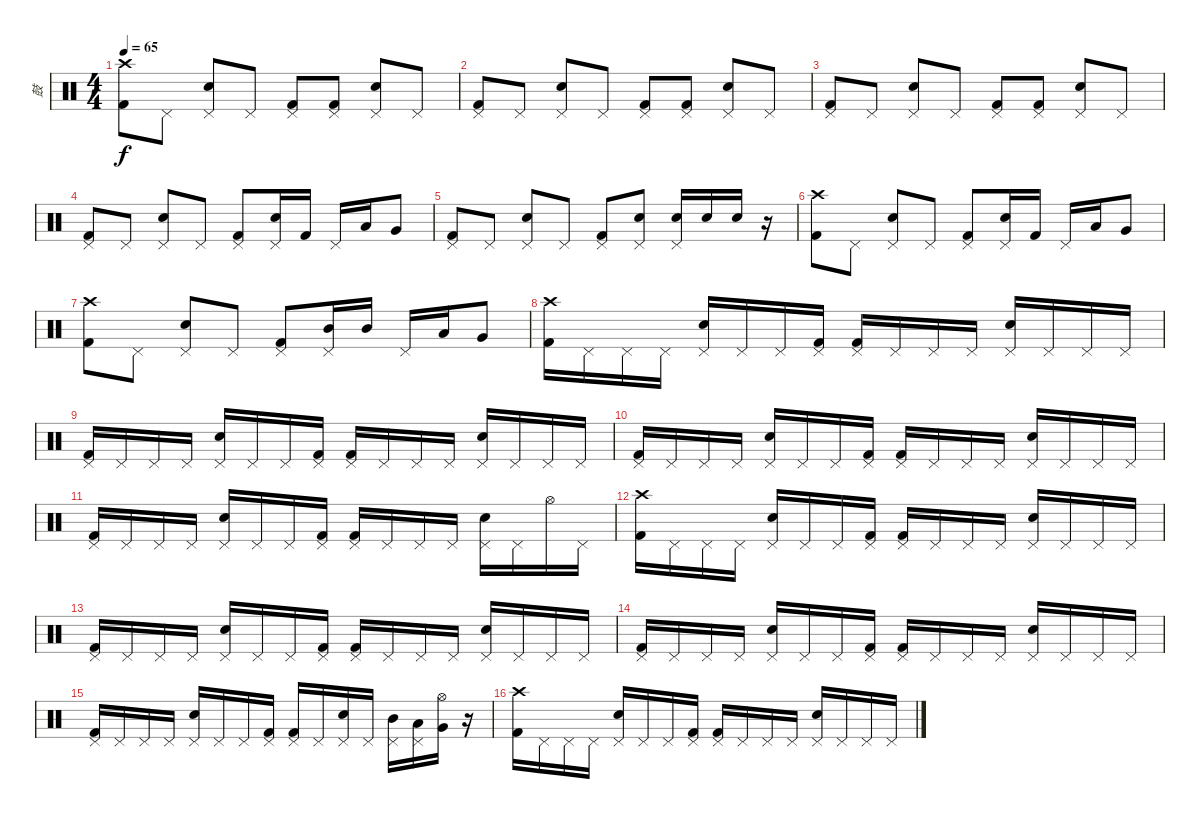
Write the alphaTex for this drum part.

\track ("鼓" "鼓") {instrument percussion}
\staff {score}
\articulation defaults
\ts (4 4)
\tempo 65
\clef neutral
\ks c
("Crash high (hit)" "Kick (hit) 2").8{dy f} "Pedal Hi-Hat (hit)".8 ("Pedal Hi-Hat (hit)" "Electric Snare (hit)").8 "Pedal Hi-Hat (hit)".8 ("Pedal Hi-Hat (hit)" "Kick (hit) 2").8 ("Pedal Hi-Hat (hit)" "Kick (hit) 2").8 ("Pedal Hi-Hat (hit)" "Electric Snare (hit)").8 "Pedal Hi-Hat (hit)".8 |
("Pedal Hi-Hat (hit)" "Kick (hit) 2").8 "Pedal Hi-Hat (hit)".8 ("Pedal Hi-Hat (hit)" "Electric Snare (hit)").8 "Pedal Hi-Hat (hit)".8 ("Pedal Hi-Hat (hit)" "Kick (hit) 2").8 ("Pedal Hi-Hat (hit)" "Kick (hit) 2").8 ("Pedal Hi-Hat (hit)" "Electric Snare (hit)").8 "Pedal Hi-Hat (hit)".8 |
("Pedal Hi-Hat (hit)" "Kick (hit) 2").8 "Pedal Hi-Hat (hit)".8 ("Pedal Hi-Hat (hit)" "Electric Snare (hit)").8 "Pedal Hi-Hat (hit)".8 ("Pedal Hi-Hat (hit)" "Kick (hit) 2").8 ("Pedal Hi-Hat (hit)" "Kick (hit) 2").8 ("Pedal Hi-Hat (hit)" "Electric Snare (hit)").8 "Pedal Hi-Hat (hit)".8 |
("Pedal Hi-Hat (hit)" "Kick (hit) 2").8 "Pedal Hi-Hat (hit)".8 ("Pedal Hi-Hat (hit)" "Electric Snare (hit)").8 "Pedal Hi-Hat (hit)".8 ("Pedal Hi-Hat (hit)" "Kick (hit) 2").8 ("Pedal Hi-Hat (hit)" "Electric Snare (hit)").16 "Kick (hit) 2".16 "Pedal Hi-Hat (hit)".16 "Low Tom (hit)".16 "Very Low Tom (hit)".8 |
("Pedal Hi-Hat (hit)" "Kick (hit) 2").8 "Pedal Hi-Hat (hit)".8 ("Pedal Hi-Hat (hit)" "Electric Snare (hit)").8 "Pedal Hi-Hat (hit)".8 ("Pedal Hi-Hat (hit)" "Kick (hit) 2").8 ("Pedal Hi-Hat (hit)" "Electric Snare (hit)").8 ("Pedal Hi-Hat (hit)" "Electric Snare (hit)").16 "Electric Snare (hit)".16 "Electric Snare (hit)".16 r.16 |
("Crash high (hit)" "Kick (hit) 2").8 "Pedal Hi-Hat (hit)".8 ("Pedal Hi-Hat (hit)" "Electric Snare (hit)").8 "Pedal Hi-Hat (hit)".8 ("Pedal Hi-Hat (hit)" "Kick (hit) 2").8 ("Pedal Hi-Hat (hit)" "Electric Snare (hit)").16 "Kick (hit) 2".16 "Pedal Hi-Hat (hit)".16 "Low Tom (hit)".16 "Very Low Tom (hit)".8 |
("Crash high (hit)" "Kick (hit) 2").8 "Pedal Hi-Hat (hit)".8 ("Pedal Hi-Hat (hit)" "Electric Snare (hit)").8 "Pedal Hi-Hat (hit)".8 ("Pedal Hi-Hat (hit)" "Kick (hit) 2").8 ("Pedal Hi-Hat (hit)" "Mid Tom (hit)").16 "Mid Tom (hit)".16 "Pedal Hi-Hat (hit)".16 "Low Tom (hit)".16 "Very Low Tom (hit)".8 |
("Crash high (hit)" "Kick (hit) 2").16 "Pedal Hi-Hat (hit)".16 "Pedal Hi-Hat (hit)".16 "Pedal Hi-Hat (hit)".16 ("Pedal Hi-Hat (hit)" "Electric Snare (hit)").16 "Pedal Hi-Hat (hit)".16 "Pedal Hi-Hat (hit)".16 ("Pedal Hi-Hat (hit)" "Kick (hit) 2").16 ("Pedal Hi-Hat (hit)" "Kick (hit) 2").16 "Pedal Hi-Hat (hit)".16 "Pedal Hi-Hat (hit)".16 "Pedal Hi-Hat (hit)".16 ("Pedal Hi-Hat (hit)" "Electric Snare (hit)").16 "Pedal Hi-Hat (hit)".16 "Pedal Hi-Hat (hit)".16 "Pedal Hi-Hat (hit)".16 |
("Pedal Hi-Hat (hit)" "Kick (hit) 2").16 "Pedal Hi-Hat (hit)".16 "Pedal Hi-Hat (hit)".16 "Pedal Hi-Hat (hit)".16 ("Pedal Hi-Hat (hit)" "Electric Snare (hit)").16 "Pedal Hi-Hat (hit)".16 "Pedal Hi-Hat (hit)".16 ("Pedal Hi-Hat (hit)" "Kick (hit) 2").16 ("Pedal Hi-Hat (hit)" "Kick (hit) 2").16 "Pedal Hi-Hat (hit)".16 "Pedal Hi-Hat (hit)".16 "Pedal Hi-Hat (hit)".16 ("Pedal Hi-Hat (hit)" "Electric Snare (hit)").16 "Pedal Hi-Hat (hit)".16 "Pedal Hi-Hat (hit)".16 "Pedal Hi-Hat (hit)".16 |
("Pedal Hi-Hat (hit)" "Kick (hit) 2").16 "Pedal Hi-Hat (hit)".16 "Pedal Hi-Hat (hit)".16 "Pedal Hi-Hat (hit)".16 ("Pedal Hi-Hat (hit)" "Electric Snare (hit)").16 "Pedal Hi-Hat (hit)".16 "Pedal Hi-Hat (hit)".16 ("Pedal Hi-Hat (hit)" "Kick (hit) 2").16 ("Pedal Hi-Hat (hit)" "Kick (hit) 2").16 "Pedal Hi-Hat (hit)".16 "Pedal Hi-Hat (hit)".16 "Pedal Hi-Hat (hit)".16 ("Pedal Hi-Hat (hit)" "Electric Snare (hit)").16 "Pedal Hi-Hat (hit)".16 "Pedal Hi-Hat (hit)".16 "Pedal Hi-Hat (hit)".16 |
("Pedal Hi-Hat (hit)" "Kick (hit) 2").16 "Pedal Hi-Hat (hit)".16 "Pedal Hi-Hat (hit)".16 "Pedal Hi-Hat (hit)".16 ("Pedal Hi-Hat (hit)" "Electric Snare (hit)").16 "Pedal Hi-Hat (hit)".16 "Pedal Hi-Hat (hit)".16 ("Pedal Hi-Hat (hit)" "Kick (hit) 2").16 ("Pedal Hi-Hat (hit)" "Kick (hit) 2").16 "Pedal Hi-Hat (hit)".16 "Pedal Hi-Hat (hit)".16 "Pedal Hi-Hat (hit)".16 ("Pedal Hi-Hat (hit)" "Electric Snare (hit)").16 "Pedal Hi-Hat (hit)".16 "Hi-Hat (open)".16 "Pedal Hi-Hat (hit)".16 |
("Crash high (hit)" "Kick (hit) 2").16 "Pedal Hi-Hat (hit)".16 "Pedal Hi-Hat (hit)".16 "Pedal Hi-Hat (hit)".16 ("Pedal Hi-Hat (hit)" "Electric Snare (hit)").16 "Pedal Hi-Hat (hit)".16 "Pedal Hi-Hat (hit)".16 ("Pedal Hi-Hat (hit)" "Kick (hit) 2").16 ("Pedal Hi-Hat (hit)" "Kick (hit) 2").16 "Pedal Hi-Hat (hit)".16 "Pedal Hi-Hat (hit)".16 "Pedal Hi-Hat (hit)".16 ("Pedal Hi-Hat (hit)" "Electric Snare (hit)").16 "Pedal Hi-Hat (hit)".16 "Pedal Hi-Hat (hit)".16 "Pedal Hi-Hat (hit)".16 |
("Pedal Hi-Hat (hit)" "Kick (hit) 2").16 "Pedal Hi-Hat (hit)".16 "Pedal Hi-Hat (hit)".16 "Pedal Hi-Hat (hit)".16 ("Pedal Hi-Hat (hit)" "Electric Snare (hit)").16 "Pedal Hi-Hat (hit)".16 "Pedal Hi-Hat (hit)".16 ("Pedal Hi-Hat (hit)" "Kick (hit) 2").16 ("Pedal Hi-Hat (hit)" "Kick (hit) 2").16 "Pedal Hi-Hat (hit)".16 "Pedal Hi-Hat (hit)".16 "Pedal Hi-Hat (hit)".16 ("Pedal Hi-Hat (hit)" "Electric Snare (hit)").16 "Pedal Hi-Hat (hit)".16 "Pedal Hi-Hat (hit)".16 "Pedal Hi-Hat (hit)".16 |
("Pedal Hi-Hat (hit)" "Kick (hit) 2").16 "Pedal Hi-Hat (hit)".16 "Pedal Hi-Hat (hit)".16 "Pedal Hi-Hat (hit)".16 ("Pedal Hi-Hat (hit)" "Electric Snare (hit)").16 "Pedal Hi-Hat (hit)".16 "Pedal Hi-Hat (hit)".16 ("Pedal Hi-Hat (hit)" "Kick (hit) 2").16 ("Pedal Hi-Hat (hit)" "Kick (hit) 2").16 "Pedal Hi-Hat (hit)".16 "Pedal Hi-Hat (hit)".16 "Pedal Hi-Hat (hit)".16 ("Pedal Hi-Hat (hit)" "Electric Snare (hit)").16 "Pedal Hi-Hat (hit)".16 "Pedal Hi-Hat (hit)".16 "Pedal Hi-Hat (hit)".16 |
("Pedal Hi-Hat (hit)" "Kick (hit) 2").16 "Pedal Hi-Hat (hit)".16 "Pedal Hi-Hat (hit)".16 "Pedal Hi-Hat (hit)".16 ("Pedal Hi-Hat (hit)" "Electric Snare (hit)").16 "Pedal Hi-Hat (hit)".16 "Pedal Hi-Hat (hit)".16 ("Pedal Hi-Hat (hit)" "Kick (hit) 2").16 ("Pedal Hi-Hat (hit)" "Kick (hit) 2").16 "Pedal Hi-Hat (hit)".16 ("Pedal Hi-Hat (hit)" "Electric Snare (hit)").16 "Pedal Hi-Hat (hit)".16 ("Pedal Hi-Hat (hit)" "Mid Tom (hit)").16 ("Pedal Hi-Hat (hit)" "Low Tom (hit)").16 ("Hi-Hat (open)" "Very Low Tom (hit)").16 r.16 |
("Crash high (hit)" "Kick (hit) 2").16 "Pedal Hi-Hat (hit)".16 "Pedal Hi-Hat (hit)".16 "Pedal Hi-Hat (hit)".16 ("Pedal Hi-Hat (hit)" "Electric Snare (hit)").16 "Pedal Hi-Hat (hit)".16 "Pedal Hi-Hat (hit)".16 ("Pedal Hi-Hat (hit)" "Kick (hit) 2").16 ("Pedal Hi-Hat (hit)" "Kick (hit) 2").16 "Pedal Hi-Hat (hit)".16 "Pedal Hi-Hat (hit)".16 "Pedal Hi-Hat (hit)".16 ("Pedal Hi-Hat (hit)" "Electric Snare (hit)").16 "Pedal Hi-Hat (hit)".16 "Pedal Hi-Hat (hit)".16 "Pedal Hi-Hat (hit)".16
